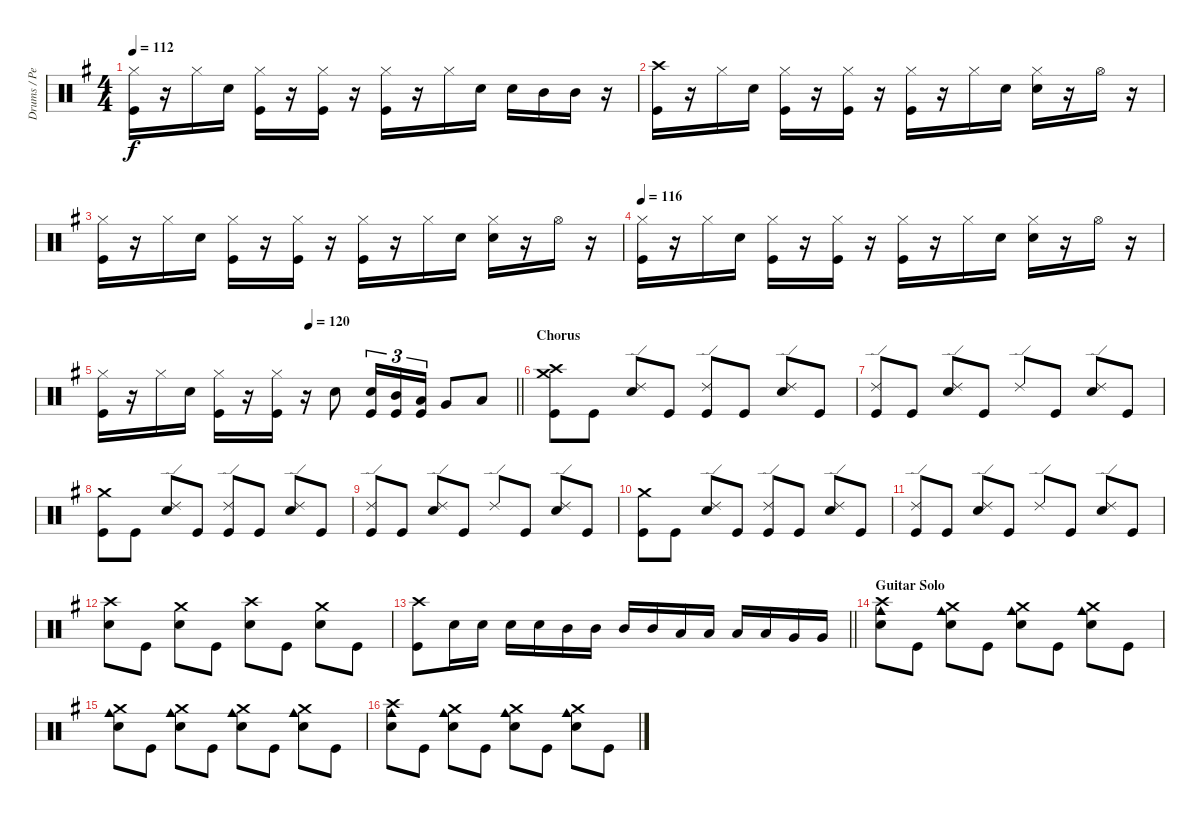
\track ("Drums / Percussion" "Drums / Pe") {instrument percussion}
\staff {score}
\articulation defaults
\ts (4 4)
\tempo 112
\clef neutral
\ks eminor
("Hi-Hat (closed)" "Kick (hit)").16{dy f} r.16 "Hi-Hat (closed)".16 "Snare (hit) 2".16 ("Hi-Hat (closed)" "Kick (hit)").16 r.16 ("Hi-Hat (closed)" "Kick (hit)").16 r.16 ("Hi-Hat (closed)" "Kick (hit)").16 r.16 "Hi-Hat (closed)".16 "Snare (hit) 2".16 "Snare (hit) 2".16 "Mid Tom (hit)".16 "Mid Tom (hit)".16 r.16 |
("Crash high (hit)" "Kick (hit)").16 r.16 "Hi-Hat (closed)".16 "Snare (hit) 2".16 ("Hi-Hat (closed)" "Kick (hit)").16 r.16 ("Hi-Hat (closed)" "Kick (hit)").16 r.16 ("Hi-Hat (closed)" "Kick (hit)").16 r.16 "Hi-Hat (closed)".16 "Snare (hit) 2".16 ("Hi-Hat (closed)" "Snare (hit) 2").16 r.16 "Hi-Hat (open)".16 r.16 |
("Hi-Hat (closed)" "Kick (hit)").16 r.16 "Hi-Hat (closed)".16 "Snare (hit) 2".16 ("Hi-Hat (closed)" "Kick (hit)").16 r.16 ("Hi-Hat (closed)" "Kick (hit)").16 r.16 ("Hi-Hat (closed)" "Kick (hit)").16 r.16 "Hi-Hat (closed)".16 "Snare (hit) 2".16 ("Hi-Hat (closed)" "Snare (hit) 2").16 r.16 "Hi-Hat (open)".16 r.16 |
\tempo 116
("Hi-Hat (closed)" "Kick (hit)").16 r.16 "Hi-Hat (closed)".16 "Snare (hit) 2".16 ("Hi-Hat (closed)" "Kick (hit)").16 r.16 ("Hi-Hat (closed)" "Kick (hit)").16 r.16 ("Hi-Hat (closed)" "Kick (hit)").16 r.16 "Hi-Hat (closed)".16 "Snare (hit) 2".16 ("Hi-Hat (closed)" "Snare (hit) 2").16 r.16 "Hi-Hat (open)".16 r.16 |
\tempo (120 0.5)
\barLineRight lightlight
("Hi-Hat (closed)" "Kick (hit)").16 r.16 "Hi-Hat (closed)".16 "Snare (hit) 2".16 ("Hi-Hat (closed)" "Kick (hit)").16 r.16 ("Hi-Hat (closed)" "Kick (hit)").16 r.16 "Snare (hit) 2".8 ("Snare (hit) 2" "Kick (hit)").16{tu (3 2)} ("Mid Tom (hit)" "Kick (hit)").16{tu (3 2)} ("Low Tom (hit)" "Kick (hit)").16{tu (3 2)} "Very Low Tom (hit)".8 "Low Floor Tom (hit)".8 |
\section ("" "Chorus")
("Crash medium (hit)" "Crash high (hit)" "Kick (hit)").8{volume 14} "Kick (hit)".8 ("Ride (edge) 2" "Snare (hit) 2").8 "Kick (hit)".8 ("Ride (edge) 2" "Kick (hit)").8 "Kick (hit)".8 ("Ride (edge) 2" "Snare (hit) 2").8 "Kick (hit)".8 |
("Ride (edge) 2" "Kick (hit)").8 "Kick (hit)".8 ("Ride (edge) 2" "Snare (hit) 2").8 "Kick (hit)".8 "Ride (edge) 2".8 "Kick (hit)".8 ("Ride (edge) 2" "Snare (hit) 2").8 "Kick (hit)".8 |
("Crash medium (hit)" "Kick (hit)").8 "Kick (hit)".8 ("Ride (edge) 2" "Snare (hit) 2").8 "Kick (hit)".8 ("Ride (edge) 2" "Kick (hit)").8 "Kick (hit)".8 ("Ride (edge) 2" "Snare (hit) 2").8 "Kick (hit)".8 |
("Ride (edge) 2" "Kick (hit)").8 "Kick (hit)".8 ("Ride (edge) 2" "Snare (hit) 2").8 "Kick (hit)".8 "Ride (edge) 2".8 "Kick (hit)".8 ("Ride (edge) 2" "Snare (hit) 2").8 "Kick (hit)".8 |
("Crash medium (hit)" "Kick (hit)").8 "Kick (hit)".8 ("Ride (edge) 2" "Snare (hit) 2").8 "Kick (hit)".8 ("Ride (edge) 2" "Kick (hit)").8 "Kick (hit)".8 ("Ride (edge) 2" "Snare (hit) 2").8 "Kick (hit)".8 |
("Ride (edge) 2" "Kick (hit)").8 "Kick (hit)".8 ("Ride (edge) 2" "Snare (hit) 2").8 "Kick (hit)".8 "Ride (edge) 2".8 "Kick (hit)".8 ("Ride (edge) 2" "Snare (hit) 2").8 "Kick (hit)".8 |
("Crash high (hit)" "Snare (hit) 2").8 "Kick (hit)".8 ("Crash medium (hit)" "Snare (hit) 2").8 "Kick (hit)".8 ("Crash high (hit)" "Snare (hit) 2").8 "Kick (hit)".8 ("Crash medium (hit)" "Snare (hit) 2").8 "Kick (hit)".8 |
\barLineRight lightlight
("Crash high (hit)" "Kick (hit)").8 "Snare (hit) 2".16 "Snare (hit) 2".16 "Snare (hit) 2".16 "Snare (hit) 2".16 "Mid Tom (hit)".16 "Mid Tom (hit)".16 "Mid Tom (hit)".16 "Mid Tom (hit)".16 "Low Tom (hit)".16 "Low Tom (hit)".16 "Low Tom (hit)".16 "Low Tom (hit)".16 "Very Low Tom (hit)".16 "Very Low Tom (hit)".16 |
\section ("" "Guitar Solo")
("Crash high (hit)" "Cowbell medium (hit)" "Snare (hit) 2").8 "Kick (hit)".8 ("Crash medium (hit)" "Cowbell medium (hit)" "Snare (hit) 2").8 "Kick (hit)".8 ("Crash medium (hit)" "Cowbell medium (hit)" "Snare (hit) 2").8 "Kick (hit)".8 ("Crash medium (hit)" "Cowbell medium (hit)" "Snare (hit) 2").8 "Kick (hit)".8 |
("Crash medium (hit)" "Cowbell medium (hit)" "Snare (hit) 2").8 "Kick (hit)".8 ("Crash medium (hit)" "Cowbell medium (hit)" "Snare (hit) 2").8 "Kick (hit)".8 ("Crash medium (hit)" "Cowbell medium (hit)" "Snare (hit) 2").8 "Kick (hit)".8 ("Crash medium (hit)" "Cowbell medium (hit)" "Snare (hit) 2").8 "Kick (hit)".8 |
("Crash high (hit)" "Cowbell medium (hit)" "Snare (hit) 2").8 "Kick (hit)".8 ("Crash medium (hit)" "Cowbell medium (hit)" "Snare (hit) 2").8 "Kick (hit)".8 ("Crash medium (hit)" "Cowbell medium (hit)" "Snare (hit) 2").8 "Kick (hit)".8 ("Crash medium (hit)" "Cowbell medium (hit)" "Snare (hit) 2").8 "Kick (hit)".8
